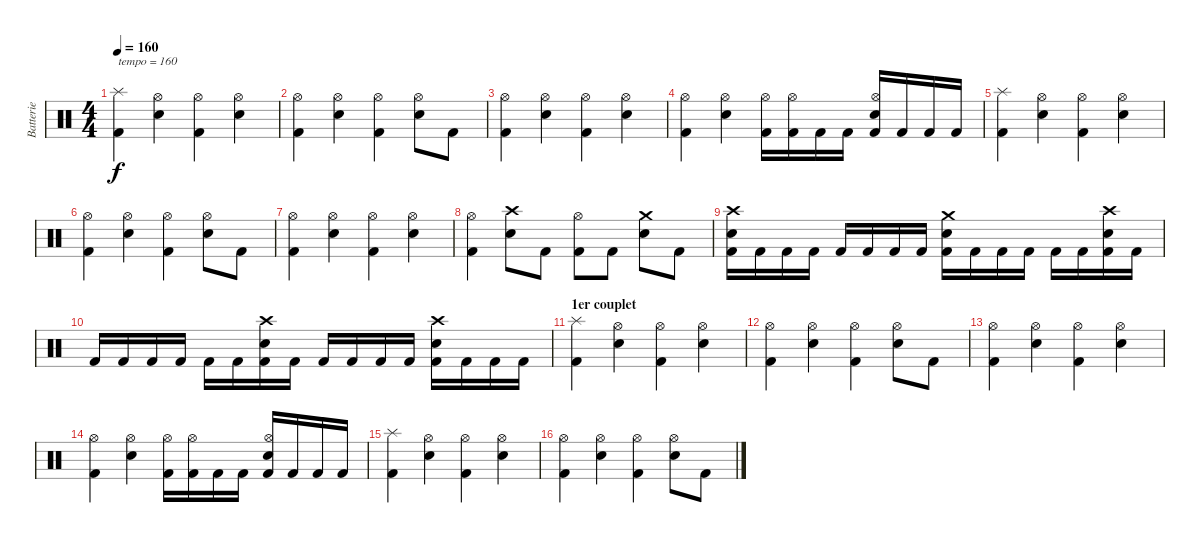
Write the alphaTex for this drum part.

\track ("Batterie" "Batterie") {instrument percussion}
\staff {score}
\articulation defaults
\ts (4 4)
\tempo 160
\clef neutral
\ks c
("Splash (hit)" "Kick (hit) 2").4{txt "tempo = 160" dy f} ("Hi-Hat (open)" "Electric Snare (hit)").4 ("Hi-Hat (open)" "Kick (hit) 2").4 ("Hi-Hat (open)" "Electric Snare (hit)").4 |
("Hi-Hat (open)" "Kick (hit) 2").4 ("Hi-Hat (open)" "Electric Snare (hit)").4 ("Hi-Hat (open)" "Kick (hit) 2").4 ("Hi-Hat (open)" "Electric Snare (hit)").8 "Kick (hit) 2".8 |
("Hi-Hat (open)" "Kick (hit) 2").4 ("Hi-Hat (open)" "Electric Snare (hit)").4 ("Hi-Hat (open)" "Kick (hit) 2").4 ("Hi-Hat (open)" "Electric Snare (hit)").4 |
("Hi-Hat (open)" "Kick (hit) 2").4 ("Hi-Hat (open)" "Electric Snare (hit)").4 ("Hi-Hat (open)" "Kick (hit) 2").16 ("Hi-Hat (open)" "Kick (hit) 2").16 "Kick (hit) 2".16 "Kick (hit) 2".16 ("Hi-Hat (open)" "Electric Snare (hit)" "Kick (hit) 2").16 "Kick (hit) 2".16 "Kick (hit) 2".16 "Kick (hit) 2".16 |
("Splash (hit)" "Kick (hit) 2").4 ("Hi-Hat (open)" "Electric Snare (hit)").4 ("Hi-Hat (open)" "Kick (hit) 2").4 ("Hi-Hat (open)" "Electric Snare (hit)").4 |
("Hi-Hat (open)" "Kick (hit) 2").4 ("Hi-Hat (open)" "Electric Snare (hit)").4 ("Hi-Hat (open)" "Kick (hit) 2").4 ("Hi-Hat (open)" "Electric Snare (hit)").8 "Kick (hit) 2".8 |
("Hi-Hat (open)" "Kick (hit) 2").4 ("Hi-Hat (open)" "Electric Snare (hit)").4 ("Hi-Hat (open)" "Kick (hit) 2").4 ("Hi-Hat (open)" "Electric Snare (hit)").4 |
("Hi-Hat (open)" "Kick (hit) 2").4 ("Crash high (hit)" "Electric Snare (hit)").8 "Kick (hit) 2".8 ("Hi-Hat (open)" "Kick (hit) 2").8 "Kick (hit) 2".8 ("Crash medium (hit)" "Electric Snare (hit)").8 "Kick (hit) 2".8 |
("Crash high (hit)" "Electric Snare (hit)" "Kick (hit) 2").16 "Kick (hit) 2".16 "Kick (hit) 2".16 "Kick (hit) 2".16 "Kick (hit) 2".16 "Kick (hit) 2".16 "Kick (hit) 2".16 "Kick (hit) 2".16 ("Crash medium (hit)" "Electric Snare (hit)" "Kick (hit) 2").16 "Kick (hit) 2".16 "Kick (hit) 2".16 "Kick (hit) 2".16 "Kick (hit) 2".16 "Kick (hit) 2".16 ("Crash high (hit)" "Electric Snare (hit)" "Kick (hit) 2").16 "Kick (hit) 2".16 |
"Kick (hit) 2".16 "Kick (hit) 2".16 "Kick (hit) 2".16 "Kick (hit) 2".16 "Kick (hit) 2".16 "Kick (hit) 2".16 ("Crash high (hit)" "Electric Snare (hit)" "Kick (hit) 2").16 "Kick (hit) 2".16 "Kick (hit) 2".16 "Kick (hit) 2".16 "Kick (hit) 2".16 "Kick (hit) 2".16 ("Crash high (hit)" "Electric Snare (hit)" "Kick (hit) 2").16 "Kick (hit) 2".16 "Kick (hit) 2".16 "Kick (hit) 2".16 |
\section ("" "1er couplet")
("Splash (hit)" "Kick (hit) 2").4 ("Hi-Hat (open)" "Electric Snare (hit)").4 ("Hi-Hat (open)" "Kick (hit) 2").4 ("Hi-Hat (open)" "Electric Snare (hit)").4 |
("Hi-Hat (open)" "Kick (hit) 2").4 ("Hi-Hat (open)" "Electric Snare (hit)").4 ("Hi-Hat (open)" "Kick (hit) 2").4 ("Hi-Hat (open)" "Electric Snare (hit)").8 "Kick (hit) 2".8 |
("Hi-Hat (open)" "Kick (hit) 2").4 ("Hi-Hat (open)" "Electric Snare (hit)").4 ("Hi-Hat (open)" "Kick (hit) 2").4 ("Hi-Hat (open)" "Electric Snare (hit)").4 |
("Hi-Hat (open)" "Kick (hit) 2").4 ("Hi-Hat (open)" "Electric Snare (hit)").4 ("Hi-Hat (open)" "Kick (hit) 2").16 ("Hi-Hat (open)" "Kick (hit) 2").16 "Kick (hit) 2".16 "Kick (hit) 2".16 ("Hi-Hat (open)" "Electric Snare (hit)" "Kick (hit) 2").16 "Kick (hit) 2".16 "Kick (hit) 2".16 "Kick (hit) 2".16 |
("Splash (hit)" "Kick (hit) 2").4 ("Hi-Hat (open)" "Electric Snare (hit)").4 ("Hi-Hat (open)" "Kick (hit) 2").4 ("Hi-Hat (open)" "Electric Snare (hit)").4 |
("Hi-Hat (open)" "Kick (hit) 2").4 ("Hi-Hat (open)" "Electric Snare (hit)").4 ("Hi-Hat (open)" "Kick (hit) 2").4 ("Hi-Hat (open)" "Electric Snare (hit)").8 "Kick (hit) 2".8
